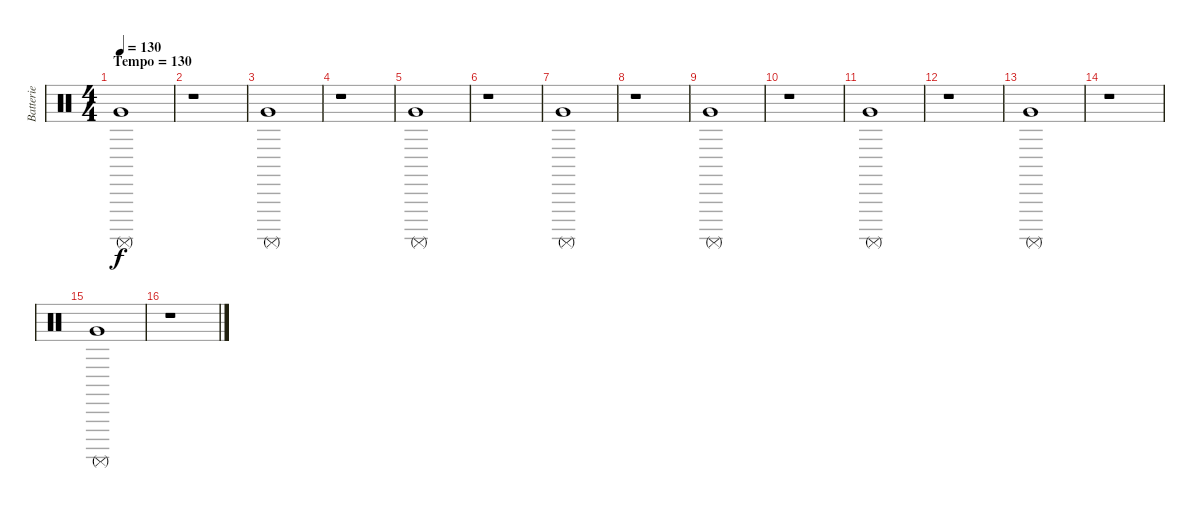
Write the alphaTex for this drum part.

\track ("Batterie" "Batterie") {instrument percussion}
\staff {score}
\articulation defaults
\ts (4 4)
\section ("" "Tempo = 130")
\tempo 130
\clef neutral
\ks c
("Surdo (mute)" "Very Low Tom (hit)").1{dy f} |
r.1 |
("Surdo (mute)" "Very Low Tom (hit)").1 |
r.1 |
("Surdo (mute)" "Very Low Tom (hit)").1 |
r.1 |
("Surdo (mute)" "Very Low Tom (hit)").1 |
r.1 |
("Surdo (mute)" "Very Low Tom (hit)").1 |
r.1 |
("Surdo (mute)" "Very Low Tom (hit)").1 |
r.1 |
("Surdo (mute)" "Very Low Tom (hit)").1 |
r.1 |
("Surdo (mute)" "Very Low Tom (hit)").1 |
r.1
